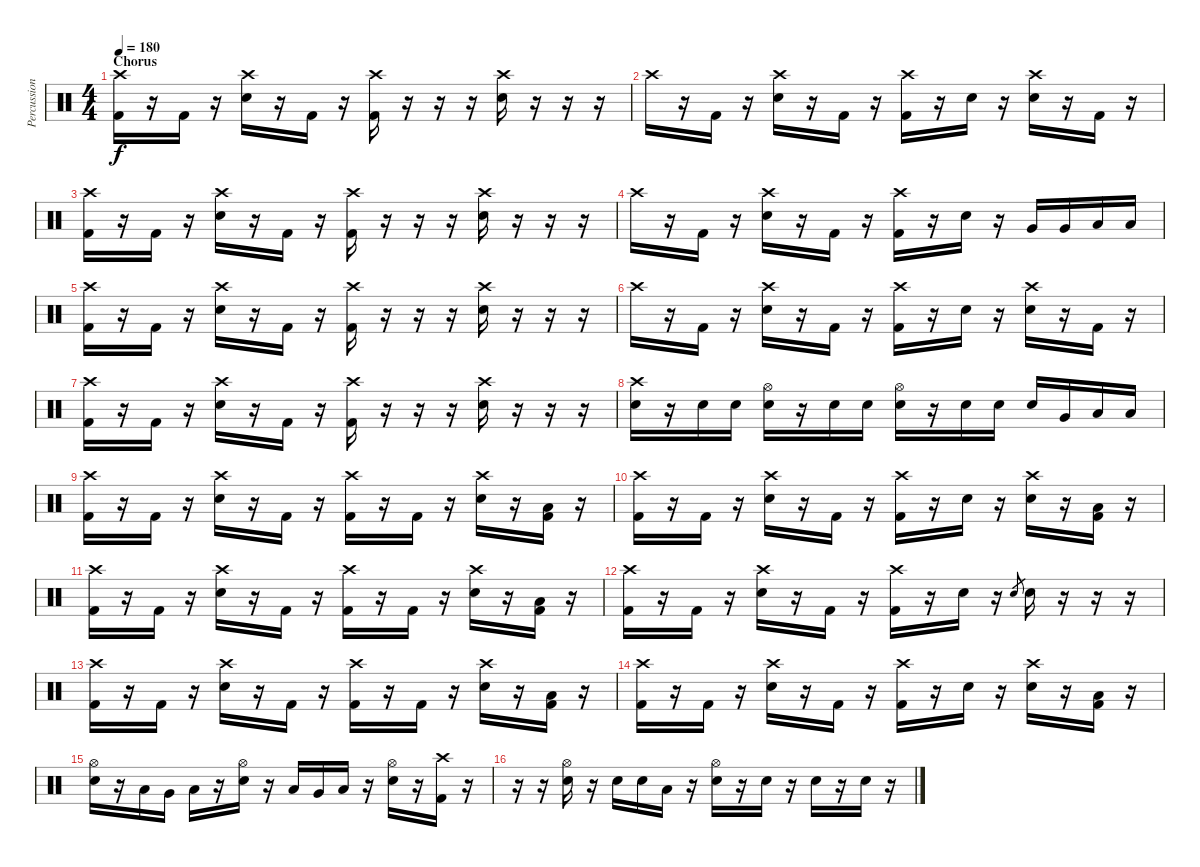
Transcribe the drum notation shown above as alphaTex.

\track ("Percussion" "Percussion") {instrument percussion}
\staff {score}
\articulation defaults
\ts (4 4)
\section ("" "Chorus")
\tempo 180
\clef neutral
\ks c
("Crash high (hit)" "Kick (hit) 2").16{dy f} r.16 "Kick (hit) 2".16 r.16 ("Crash high (hit)" "Electric Snare (hit)").16 r.16 "Kick (hit) 2".16 r.16 ("Crash high (hit)" "Kick (hit) 2").16 r.16 r.16 r.16 ("Crash high (hit)" "Electric Snare (hit)").16 r.16 r.16 r.16 |
"Crash high (hit)".16 r.16 "Kick (hit) 2".16 r.16 ("Crash high (hit)" "Electric Snare (hit)").16 r.16 "Kick (hit) 2".16 r.16 ("Crash high (hit)" "Kick (hit) 2").16 r.16 "Electric Snare (hit)".16 r.16 ("Crash high (hit)" "Electric Snare (hit)").16 r.16 "Kick (hit) 2".16 r.16 |
("Crash high (hit)" "Kick (hit) 2").16 r.16 "Kick (hit) 2".16 r.16 ("Crash high (hit)" "Electric Snare (hit)").16 r.16 "Kick (hit) 2".16 r.16 ("Crash high (hit)" "Kick (hit) 2").16 r.16 r.16 r.16 ("Crash high (hit)" "Electric Snare (hit)").16 r.16 r.16 r.16 |
"Crash high (hit)".16 r.16 "Kick (hit) 2".16 r.16 ("Crash high (hit)" "Electric Snare (hit)").16 r.16 "Kick (hit) 2".16 r.16 ("Crash high (hit)" "Kick (hit) 2").16 r.16 "Electric Snare (hit)".16 r.16 "Very Low Tom (hit)".16 "Very Low Tom (hit)".16 "Low Floor Tom (hit)".16 "Low Floor Tom (hit)".16 |
("Crash high (hit)" "Kick (hit) 2").16 r.16 "Kick (hit) 2".16 r.16 ("Crash high (hit)" "Electric Snare (hit)").16 r.16 "Kick (hit) 2".16 r.16 ("Crash high (hit)" "Kick (hit) 2").16 r.16 r.16 r.16 ("Crash high (hit)" "Electric Snare (hit)").16 r.16 r.16 r.16 |
"Crash high (hit)".16 r.16 "Kick (hit) 2".16 r.16 ("Crash high (hit)" "Electric Snare (hit)").16 r.16 "Kick (hit) 2".16 r.16 ("Crash high (hit)" "Kick (hit) 2").16 r.16 "Electric Snare (hit)".16 r.16 ("Crash high (hit)" "Electric Snare (hit)").16 r.16 "Kick (hit) 2".16 r.16 |
("Crash high (hit)" "Kick (hit) 2").16 r.16 "Kick (hit) 2".16 r.16 ("Crash high (hit)" "Electric Snare (hit)").16 r.16 "Kick (hit) 2".16 r.16 ("Crash high (hit)" "Kick (hit) 2").16 r.16 r.16 r.16 ("Crash high (hit)" "Electric Snare (hit)").16 r.16 r.16 r.16 |
("Crash high (hit)" "Electric Snare (hit)").16 r.16 "Electric Snare (hit)".16 "Electric Snare (hit)".16 ("Hi-Hat (open)" "Electric Snare (hit)").16 r.16 "Electric Snare (hit)".16 "Electric Snare (hit)".16 ("Hi-Hat (open)" "Electric Snare (hit)").16 r.16 "Electric Snare (hit)".16 "Electric Snare (hit)".16 "Electric Snare (hit)".16 "Very Low Tom (hit)".16 "Low Floor Tom (hit)".16 "Low Floor Tom (hit)".16 |
("Crash high (hit)" "Kick (hit) 2").16 r.16 "Kick (hit) 2".16 r.16 ("Crash high (hit)" "Electric Snare (hit)").16 r.16 "Kick (hit) 2".16 r.16 ("Crash high (hit)" "Kick (hit) 2").16 r.16 "Kick (hit) 2".16 r.16 ("Crash high (hit)" "Electric Snare (hit)").16 r.16 ("Low Floor Tom (hit)" "Kick (hit) 2").16 r.16 |
("Crash high (hit)" "Kick (hit) 2").16 r.16 "Kick (hit) 2".16 r.16 ("Crash high (hit)" "Electric Snare (hit)").16 r.16 "Kick (hit) 2".16 r.16 ("Crash high (hit)" "Kick (hit) 2").16 r.16 "Electric Snare (hit)".16 r.16 ("Crash high (hit)" "Electric Snare (hit)").16 r.16 ("Low Floor Tom (hit)" "Kick (hit) 2").16 r.16 |
("Crash high (hit)" "Kick (hit) 2").16 r.16 "Kick (hit) 2".16 r.16 ("Crash high (hit)" "Electric Snare (hit)").16 r.16 "Kick (hit) 2".16 r.16 ("Crash high (hit)" "Kick (hit) 2").16 r.16 "Kick (hit) 2".16 r.16 ("Crash high (hit)" "Electric Snare (hit)").16 r.16 ("Low Floor Tom (hit)" "Kick (hit) 2").16 r.16 |
("Crash high (hit)" "Kick (hit) 2").16 r.16 "Kick (hit) 2".16 r.16 ("Crash high (hit)" "Electric Snare (hit)").16 r.16 "Kick (hit) 2".16 r.16 ("Crash high (hit)" "Kick (hit) 2").16 r.16 "Electric Snare (hit)".16 r.16 "Electric Snare (hit)".8{gr} "Electric Snare (hit)".16 r.16 r.16 r.16 |
("Crash high (hit)" "Kick (hit) 2").16 r.16 "Kick (hit) 2".16 r.16 ("Crash high (hit)" "Electric Snare (hit)").16 r.16 "Kick (hit) 2".16 r.16 ("Crash high (hit)" "Kick (hit) 2").16 r.16 "Kick (hit) 2".16 r.16 ("Crash high (hit)" "Electric Snare (hit)").16 r.16 ("Low Floor Tom (hit)" "Kick (hit) 2").16 r.16 |
("Crash high (hit)" "Kick (hit) 2").16 r.16 "Kick (hit) 2".16 r.16 ("Crash high (hit)" "Electric Snare (hit)").16 r.16 "Kick (hit) 2".16 r.16 ("Crash high (hit)" "Kick (hit) 2").16 r.16 "Electric Snare (hit)".16 r.16 ("Crash high (hit)" "Electric Snare (hit)").16 r.16 ("Low Floor Tom (hit)" "Kick (hit) 2").16 r.16 |
("Hi-Hat (open)" "Electric Snare (hit)").16 r.16 "Low Tom (hit)".16 "Very Low Tom (hit)".16 "Low Floor Tom (hit)".16 r.16 ("Hi-Hat (open)" "Electric Snare (hit)").16 r.16 "Low Tom (hit)".16 "Very Low Tom (hit)".16 "Low Floor Tom (hit)".16 r.16 ("Hi-Hat (open)" "Electric Snare (hit)").16 r.16 ("Crash high (hit)" "Kick (hit) 2").16 r.16 |
r.16 r.16 ("Hi-Hat (open)" "Electric Snare (hit)").16 r.16 "Electric Snare (hit)".16 "Electric Snare (hit)".16 "Low Floor Tom (hit)".16 r.16 ("Hi-Hat (open)" "Electric Snare (hit)").16 r.16 "Electric Snare (hit)".16 r.16 "Electric Snare (hit)".16 r.16 "Electric Snare (hit)".16 r.16
